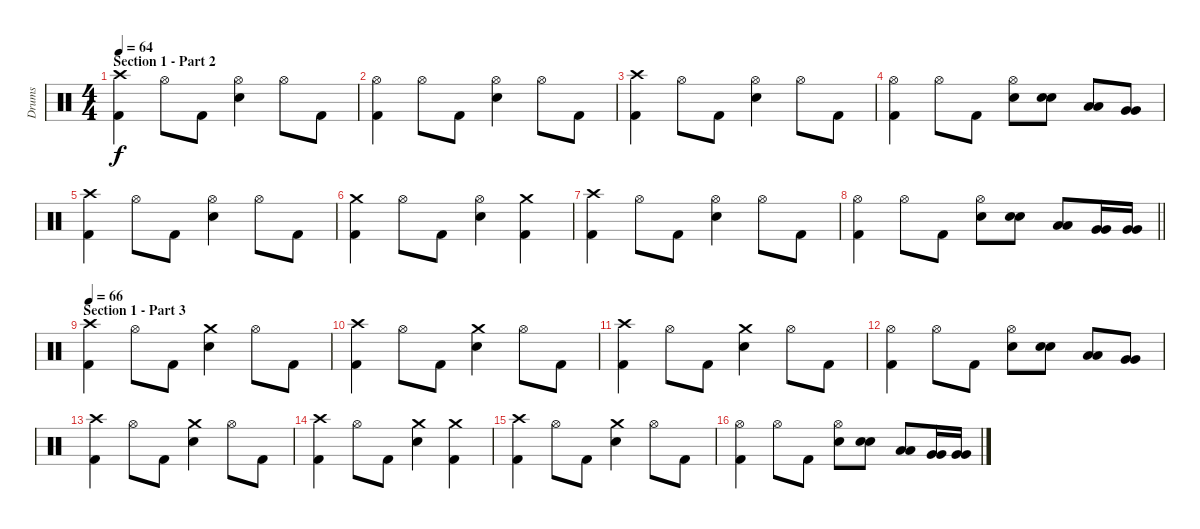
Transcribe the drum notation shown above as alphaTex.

\track ("Drums" "Drums") {instrument percussion}
\staff {score}
\articulation defaults
\ts (4 4)
\section ("" "Section 1 - Part 2")
\tempo 64
\clef neutral
\ks c
("Crash high (hit)" "Kick (hit) 2").4{dy f} "Hi-Hat (open)".8 "Kick (hit) 2".8 ("Hi-Hat (open)" "Electric Snare (hit)").4 "Hi-Hat (open)".8 "Kick (hit) 2".8 |
("Hi-Hat (open)" "Kick (hit) 2").4 "Hi-Hat (open)".8 "Kick (hit) 2".8 ("Hi-Hat (open)" "Electric Snare (hit)").4 "Hi-Hat (open)".8 "Kick (hit) 2".8 |
("Crash high (hit)" "Kick (hit) 2").4 "Hi-Hat (open)".8 "Kick (hit) 2".8 ("Hi-Hat (open)" "Electric Snare (hit)").4 "Hi-Hat (open)".8 "Kick (hit) 2".8 |
("Hi-Hat (open)" "Kick (hit) 2").4 "Hi-Hat (open)".8 "Kick (hit) 2".8 ("Hi-Hat (open)" "Electric Snare (hit)").8 ("Electric Snare (hit)" "Electric Snare (hit)").8{bu 60} ("Low Tom (hit)" "Low Tom (hit)").8{bu 60} ("Very Low Tom (hit)" "Very Low Tom (hit)").8{bu 60} |
("Crash high (hit)" "Kick (hit) 2").4 "Hi-Hat (open)".8 "Kick (hit) 2".8 ("Hi-Hat (open)" "Electric Snare (hit)").4 "Hi-Hat (open)".8 "Kick (hit) 2".8 |
("Crash medium (hit)" "Kick (hit) 2").4 "Hi-Hat (open)".8 "Kick (hit) 2".8 ("Hi-Hat (open)" "Electric Snare (hit)").4 ("Crash medium (hit)" "Kick (hit) 2").4 |
("Crash high (hit)" "Kick (hit) 2").4 "Hi-Hat (open)".8 "Kick (hit) 2".8 ("Hi-Hat (open)" "Electric Snare (hit)").4 "Hi-Hat (open)".8 "Kick (hit) 2".8 |
\barLineRight lightlight
("Hi-Hat (open)" "Kick (hit) 2").4 "Hi-Hat (open)".8 "Kick (hit) 2".8 ("Hi-Hat (open)" "Electric Snare (hit)").8 ("Electric Snare (hit)" "Electric Snare (hit)").8{bu 60} ("Low Tom (hit)" "Low Tom (hit)").8{bu 60} ("Very Low Tom (hit)" "Very Low Tom (hit)").16{bu 60} ("Very Low Tom (hit)" "Very Low Tom (hit)").16{bu 60} |
\section ("" "Section 1 - Part 3")
\tempo 66
("Crash high (hit)" "Kick (hit) 2").4 "Hi-Hat (open)".8 "Kick (hit) 2".8 ("Crash medium (hit)" "Electric Snare (hit)").4 "Hi-Hat (open)".8 "Kick (hit) 2".8 |
("Crash high (hit)" "Kick (hit) 2").4 "Hi-Hat (open)".8 "Kick (hit) 2".8 ("Crash medium (hit)" "Electric Snare (hit)").4 "Hi-Hat (open)".8 "Kick (hit) 2".8 |
("Crash high (hit)" "Kick (hit) 2").4 "Hi-Hat (open)".8 "Kick (hit) 2".8 ("Crash medium (hit)" "Electric Snare (hit)").4 "Hi-Hat (open)".8 "Kick (hit) 2".8 |
("Hi-Hat (open)" "Kick (hit) 2").4 "Hi-Hat (open)".8 "Kick (hit) 2".8 ("Hi-Hat (open)" "Electric Snare (hit)").8 ("Electric Snare (hit)" "Electric Snare (hit)").8{bu 60} ("Low Tom (hit)" "Low Tom (hit)").8{bu 60} ("Very Low Tom (hit)" "Very Low Tom (hit)").8{bu 60} |
("Crash high (hit)" "Kick (hit) 2").4 "Hi-Hat (open)".8 "Kick (hit) 2".8 ("Crash medium (hit)" "Electric Snare (hit)").4 "Hi-Hat (open)".8 "Kick (hit) 2".8 |
("Crash high (hit)" "Kick (hit) 2").4 "Hi-Hat (open)".8 "Kick (hit) 2".8 ("Crash medium (hit)" "Electric Snare (hit)").4 ("Crash medium (hit)" "Kick (hit) 2").4 |
("Crash high (hit)" "Kick (hit) 2").4 "Hi-Hat (open)".8 "Kick (hit) 2".8 ("Crash medium (hit)" "Electric Snare (hit)").4 "Hi-Hat (open)".8 "Kick (hit) 2".8 |
("Hi-Hat (open)" "Kick (hit) 2").4 "Hi-Hat (open)".8 "Kick (hit) 2".8 ("Hi-Hat (open)" "Electric Snare (hit)").8 ("Electric Snare (hit)" "Electric Snare (hit)").8{bu 60} ("Low Tom (hit)" "Low Tom (hit)").8{bu 60} ("Very Low Tom (hit)" "Very Low Tom (hit)").16{bu 60} ("Very Low Tom (hit)" "Very Low Tom (hit)").16{bu 60}
